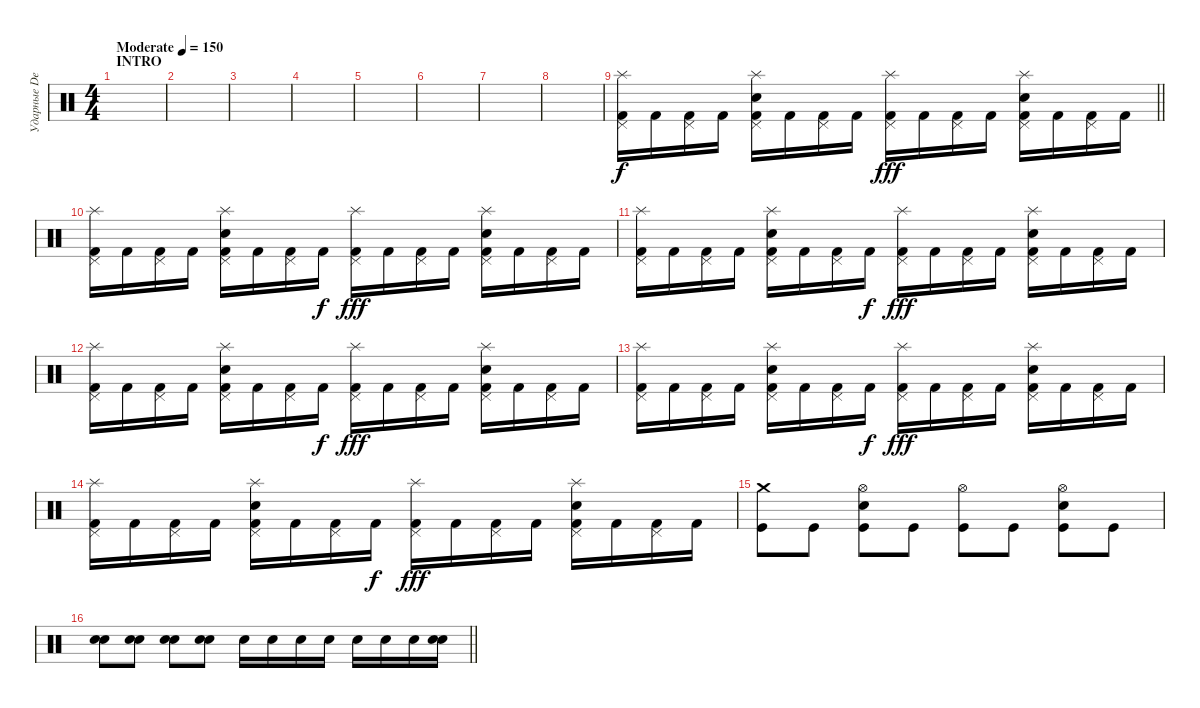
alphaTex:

\track ("Ударные Den" "Ударные De") {instrument percussion}
\staff {score}
\articulation defaults
\ts (4 4)
\section ("" "INTRO")
\tempo (150 "Moderate")
\clef neutral
\ks c
|
|
|
|
|
|
|
|
\barLineRight lightlight
("Splash (hit)" "Pedal Hi-Hat (hit)" "Kick (hit) 2").16 "Kick (hit) 2".16 ("Pedal Hi-Hat (hit)" "Kick (hit) 2").16 "Kick (hit) 2".16 ("Splash (hit)" "Pedal Hi-Hat (hit)" "Electric Snare (hit)" "Kick (hit) 2").16 "Kick (hit) 2".16 ("Pedal Hi-Hat (hit)" "Kick (hit) 2").16 "Kick (hit) 2".16{dy f} ("Splash (hit)" "Pedal Hi-Hat (hit)" "Kick (hit) 2").16{dy fff} "Kick (hit) 2".16 ("Pedal Hi-Hat (hit)" "Kick (hit) 2").16 "Kick (hit) 2".16 ("Splash (hit)" "Pedal Hi-Hat (hit)" "Electric Snare (hit)" "Kick (hit) 2").16 "Kick (hit) 2".16 ("Pedal Hi-Hat (hit)" "Kick (hit) 2").16 "Kick (hit) 2".16 |
("Splash (hit)" "Pedal Hi-Hat (hit)" "Kick (hit) 2").16 "Kick (hit) 2".16 ("Pedal Hi-Hat (hit)" "Kick (hit) 2").16 "Kick (hit) 2".16 ("Splash (hit)" "Pedal Hi-Hat (hit)" "Electric Snare (hit)" "Kick (hit) 2").16 "Kick (hit) 2".16 ("Pedal Hi-Hat (hit)" "Kick (hit) 2").16 "Kick (hit) 2".16{dy f} ("Splash (hit)" "Pedal Hi-Hat (hit)" "Kick (hit) 2").16{dy fff} "Kick (hit) 2".16 ("Pedal Hi-Hat (hit)" "Kick (hit) 2").16 "Kick (hit) 2".16 ("Splash (hit)" "Pedal Hi-Hat (hit)" "Electric Snare (hit)" "Kick (hit) 2").16 "Kick (hit) 2".16 ("Pedal Hi-Hat (hit)" "Kick (hit) 2").16 "Kick (hit) 2".16 |
("Splash (hit)" "Pedal Hi-Hat (hit)" "Kick (hit) 2").16 "Kick (hit) 2".16 ("Pedal Hi-Hat (hit)" "Kick (hit) 2").16 "Kick (hit) 2".16 ("Splash (hit)" "Pedal Hi-Hat (hit)" "Electric Snare (hit)" "Kick (hit) 2").16 "Kick (hit) 2".16 ("Pedal Hi-Hat (hit)" "Kick (hit) 2").16 "Kick (hit) 2".16{dy f} ("Splash (hit)" "Pedal Hi-Hat (hit)" "Kick (hit) 2").16{dy fff} "Kick (hit) 2".16 ("Pedal Hi-Hat (hit)" "Kick (hit) 2").16 "Kick (hit) 2".16 ("Splash (hit)" "Pedal Hi-Hat (hit)" "Electric Snare (hit)" "Kick (hit) 2").16 "Kick (hit) 2".16 ("Pedal Hi-Hat (hit)" "Kick (hit) 2").16 "Kick (hit) 2".16 |
("Splash (hit)" "Pedal Hi-Hat (hit)" "Kick (hit) 2").16 "Kick (hit) 2".16 ("Pedal Hi-Hat (hit)" "Kick (hit) 2").16 "Kick (hit) 2".16 ("Splash (hit)" "Pedal Hi-Hat (hit)" "Electric Snare (hit)" "Kick (hit) 2").16 "Kick (hit) 2".16 ("Pedal Hi-Hat (hit)" "Kick (hit) 2").16 "Kick (hit) 2".16{dy f} ("Splash (hit)" "Pedal Hi-Hat (hit)" "Kick (hit) 2").16{dy fff} "Kick (hit) 2".16 ("Pedal Hi-Hat (hit)" "Kick (hit) 2").16 "Kick (hit) 2".16 ("Splash (hit)" "Pedal Hi-Hat (hit)" "Electric Snare (hit)" "Kick (hit) 2").16 "Kick (hit) 2".16 ("Pedal Hi-Hat (hit)" "Kick (hit) 2").16 "Kick (hit) 2".16 |
("Splash (hit)" "Pedal Hi-Hat (hit)" "Kick (hit) 2").16 "Kick (hit) 2".16 ("Pedal Hi-Hat (hit)" "Kick (hit) 2").16 "Kick (hit) 2".16 ("Splash (hit)" "Pedal Hi-Hat (hit)" "Electric Snare (hit)" "Kick (hit) 2").16 "Kick (hit) 2".16 ("Pedal Hi-Hat (hit)" "Kick (hit) 2").16 "Kick (hit) 2".16{dy f} ("Splash (hit)" "Pedal Hi-Hat (hit)" "Kick (hit) 2").16{dy fff} "Kick (hit) 2".16 ("Pedal Hi-Hat (hit)" "Kick (hit) 2").16 "Kick (hit) 2".16 ("Splash (hit)" "Pedal Hi-Hat (hit)" "Electric Snare (hit)" "Kick (hit) 2").16 "Kick (hit) 2".16 ("Pedal Hi-Hat (hit)" "Kick (hit) 2").16 "Kick (hit) 2".16 |
("Splash (hit)" "Pedal Hi-Hat (hit)" "Kick (hit) 2").16 "Kick (hit) 2".16 ("Pedal Hi-Hat (hit)" "Kick (hit) 2").16 "Kick (hit) 2".16 ("Splash (hit)" "Pedal Hi-Hat (hit)" "Electric Snare (hit)" "Kick (hit) 2").16 "Kick (hit) 2".16 ("Pedal Hi-Hat (hit)" "Kick (hit) 2").16 "Kick (hit) 2".16{dy f} ("Splash (hit)" "Pedal Hi-Hat (hit)" "Kick (hit) 2").16{dy fff} "Kick (hit) 2".16 ("Pedal Hi-Hat (hit)" "Kick (hit) 2").16 "Kick (hit) 2".16 ("Splash (hit)" "Pedal Hi-Hat (hit)" "Electric Snare (hit)" "Kick (hit) 2").16 "Kick (hit) 2".16 ("Pedal Hi-Hat (hit)" "Kick (hit) 2").16 "Kick (hit) 2".16 |
("Crash medium (hit)" "Kick (hit)").8 "Kick (hit)".8 ("Hi-Hat (open)" "Electric Snare (hit)" "Kick (hit)").8 "Kick (hit)".8 ("Hi-Hat (open)" "Kick (hit)").8 "Kick (hit)".8 ("Hi-Hat (open)" "Electric Snare (hit)" "Kick (hit)").8 "Kick (hit)".8 |
\barLineRight lightlight
("Electric Snare (hit)" "Electric Snare (hit)").8 ("Electric Snare (hit)" "Electric Snare (hit)").8 ("Electric Snare (hit)" "Electric Snare (hit)").8 ("Electric Snare (hit)" "Electric Snare (hit)").8 "Electric Snare (hit)".16 "Electric Snare (hit)".16 "Electric Snare (hit)".16 "Electric Snare (hit)".16 "Electric Snare (hit)".16 "Electric Snare (hit)".16 "Electric Snare (hit)".16 ("Electric Snare (hit)" "Electric Snare (hit)").16
